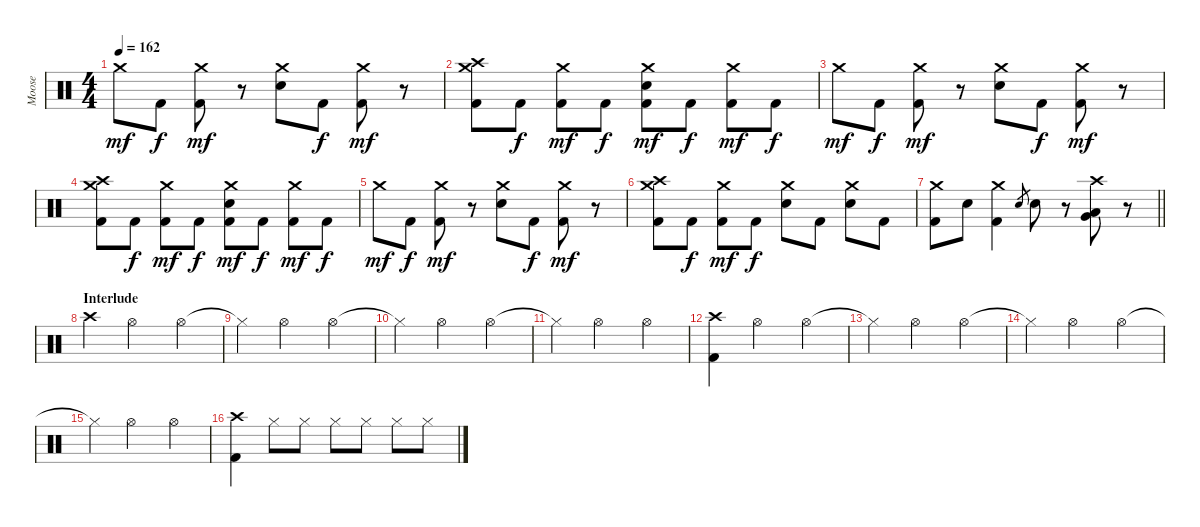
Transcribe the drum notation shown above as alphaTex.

\track ("Moose" "Moose") {instrument percussion}
\staff {score}
\articulation defaults
\ts (4 4)
\tempo 162
\clef neutral
\ks c "Crash medium (hit)".8{dy mf} "Kick (hit) 2".8{dy f}
("Kick (hit) 2" "Crash medium (hit)").8{dy mf} r.8 ("Snare (hit) 2" "Crash medium (hit)").8 "Kick (hit) 2".8{dy f} ("Kick (hit) 2" "Crash medium (hit)").8{dy mf} r.8 |
("Kick (hit) 2" "Crash high (hit)" "Crash medium (hit)").8 "Kick (hit) 2".8{dy f} ("Kick (hit) 2" "Crash medium (hit)").8{dy mf} "Kick (hit) 2".8{dy f} ("Kick (hit) 2" "Snare (hit) 2" "Crash medium (hit)").8{dy mf} "Kick (hit) 2".8{dy f} ("Kick (hit) 2" "Crash medium (hit)").8{dy mf} "Kick (hit) 2".8{dy f} |
"Crash medium (hit)".8{dy mf} "Kick (hit) 2".8{dy f} ("Kick (hit) 2" "Crash medium (hit)").8{dy mf} r.8 ("Snare (hit) 2" "Crash medium (hit)").8 "Kick (hit) 2".8{dy f} ("Kick (hit) 2" "Crash medium (hit)").8{dy mf} r.8 |
("Kick (hit) 2" "Crash high (hit)" "Crash medium (hit)").8 "Kick (hit) 2".8{dy f} ("Kick (hit) 2" "Crash medium (hit)").8{dy mf} "Kick (hit) 2".8{dy f} ("Kick (hit) 2" "Snare (hit) 2" "Crash medium (hit)").8{dy mf} "Kick (hit) 2".8{dy f} ("Kick (hit) 2" "Crash medium (hit)").8{dy mf} "Kick (hit) 2".8{dy f} |
"Crash medium (hit)".8{dy mf} "Kick (hit) 2".8{dy f} ("Kick (hit) 2" "Crash medium (hit)").8{dy mf} r.8 ("Snare (hit) 2" "Crash medium (hit)").8 "Kick (hit) 2".8{dy f} ("Kick (hit) 2" "Crash medium (hit)").8{dy mf} r.8 |
("Kick (hit) 2" "Crash high (hit)" "Crash medium (hit)").8 "Kick (hit) 2".8{dy f} ("Kick (hit) 2" "Crash medium (hit)").8{dy mf} "Kick (hit) 2".8{dy f} ("Crash medium (hit)" "Snare (hit) 2").8 "Kick (hit) 2".8 ("Crash medium (hit)" "Snare (hit) 2").8 "Kick (hit) 2".8 |
\barLineRight lightlight
("Crash medium (hit)" "Kick (hit) 2").8 "Snare (hit) 2".8 ("Crash medium (hit)" "Kick (hit) 2").4 "Snare (hit) 2".8{gr} "Snare (hit) 2".8 r.8 ("Crash high (hit)" "Very Low Tom (hit)" "Low Floor Tom (hit)").8 r.8 |
\section ("" "Interlude")
"Crash high (hit)".4 "Hi-Hat (open)".2 "Hi-Hat (open)".4 |
"Hi-Hat (closed)"{t}.4 "Hi-Hat (open)".2 "Hi-Hat (open)".4 |
"Hi-Hat (closed)"{t}.4 "Hi-Hat (open)".2 "Hi-Hat (open)".4 |
"Hi-Hat (closed)"{t}.4 "Hi-Hat (open)".2 "Hi-Hat (open)".4 |
("Crash high (hit)" "Kick (hit) 2").4 "Hi-Hat (open)".2 "Hi-Hat (open)".4 |
"Hi-Hat (closed)"{t}.4 "Hi-Hat (open)".2 "Hi-Hat (open)".4 |
"Hi-Hat (closed)"{t}.4 "Hi-Hat (open)".2 "Hi-Hat (open)".4 |
"Hi-Hat (closed)"{t}.4 "Hi-Hat (open)".2 "Hi-Hat (open)".4 |
("Crash high (hit)" "Kick (hit) 2").4 "Hi-Hat (closed)".8 "Hi-Hat (closed)".8 "Hi-Hat (closed)".8 "Hi-Hat (closed)".8 "Hi-Hat (closed)".8 "Hi-Hat (closed)".8
